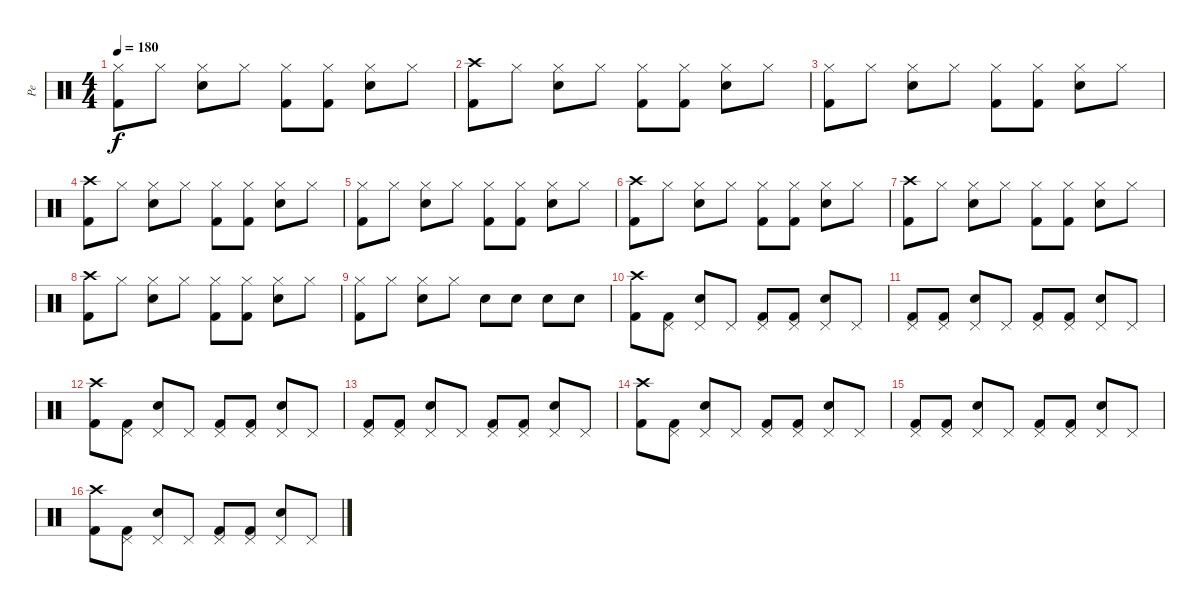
\track ("Pe" "Pe") {instrument percussion}
\staff {score}
\articulation defaults
\ts (4 4)
\tempo 180
\clef neutral
\ks c
("Hi-Hat (closed)" "Kick (hit) 2").8{dy f} "Hi-Hat (closed)".8 ("Hi-Hat (closed)" "Electric Snare (hit)").8 "Hi-Hat (closed)".8 ("Hi-Hat (closed)" "Kick (hit) 2").8 ("Hi-Hat (closed)" "Kick (hit) 2").8 ("Hi-Hat (closed)" "Electric Snare (hit)").8 "Hi-Hat (closed)".8 |
("Crash high (hit)" "Kick (hit) 2").8 "Hi-Hat (closed)".8 ("Hi-Hat (closed)" "Electric Snare (hit)").8 "Hi-Hat (closed)".8 ("Hi-Hat (closed)" "Kick (hit) 2").8 ("Hi-Hat (closed)" "Kick (hit) 2").8 ("Hi-Hat (closed)" "Electric Snare (hit)").8 "Hi-Hat (closed)".8 |
("Hi-Hat (closed)" "Kick (hit) 2").8 "Hi-Hat (closed)".8 ("Hi-Hat (closed)" "Electric Snare (hit)").8 "Hi-Hat (closed)".8 ("Hi-Hat (closed)" "Kick (hit) 2").8 ("Hi-Hat (closed)" "Kick (hit) 2").8 ("Hi-Hat (closed)" "Electric Snare (hit)").8 "Hi-Hat (closed)".8 |
("Crash high (hit)" "Kick (hit) 2").8 "Hi-Hat (closed)".8 ("Hi-Hat (closed)" "Electric Snare (hit)").8 "Hi-Hat (closed)".8 ("Hi-Hat (closed)" "Kick (hit) 2").8 ("Hi-Hat (closed)" "Kick (hit) 2").8 ("Hi-Hat (closed)" "Electric Snare (hit)").8 "Hi-Hat (closed)".8 |
("Hi-Hat (closed)" "Kick (hit) 2").8 "Hi-Hat (closed)".8 ("Hi-Hat (closed)" "Electric Snare (hit)").8 "Hi-Hat (closed)".8 ("Hi-Hat (closed)" "Kick (hit) 2").8 ("Hi-Hat (closed)" "Kick (hit) 2").8 ("Hi-Hat (closed)" "Electric Snare (hit)").8 "Hi-Hat (closed)".8 |
("Crash high (hit)" "Kick (hit) 2").8 "Hi-Hat (closed)".8 ("Hi-Hat (closed)" "Electric Snare (hit)").8 "Hi-Hat (closed)".8 ("Hi-Hat (closed)" "Kick (hit) 2").8 ("Hi-Hat (closed)" "Kick (hit) 2").8 ("Hi-Hat (closed)" "Electric Snare (hit)").8 "Hi-Hat (closed)".8 |
("Crash high (hit)" "Kick (hit) 2").8 "Hi-Hat (closed)".8 ("Hi-Hat (closed)" "Electric Snare (hit)").8 "Hi-Hat (closed)".8 ("Hi-Hat (closed)" "Kick (hit) 2").8 ("Hi-Hat (closed)" "Kick (hit) 2").8 ("Hi-Hat (closed)" "Electric Snare (hit)").8 "Hi-Hat (closed)".8 |
("Crash high (hit)" "Kick (hit) 2").8 "Hi-Hat (closed)".8 ("Hi-Hat (closed)" "Electric Snare (hit)").8 "Hi-Hat (closed)".8 ("Hi-Hat (closed)" "Kick (hit) 2").8 ("Hi-Hat (closed)" "Kick (hit) 2").8 ("Hi-Hat (closed)" "Electric Snare (hit)").8 "Hi-Hat (closed)".8 |
("Hi-Hat (closed)" "Kick (hit) 2").8 "Hi-Hat (closed)".8 ("Hi-Hat (closed)" "Electric Snare (hit)").8 "Hi-Hat (closed)".8 "Electric Snare (hit)".8 "Electric Snare (hit)".8 "Electric Snare (hit)".8 "Electric Snare (hit)".8 |
("Crash high (hit)" "Kick (hit) 2").8 ("Pedal Hi-Hat (hit)" "Kick (hit) 2").8 ("Pedal Hi-Hat (hit)" "Electric Snare (hit)").8 "Pedal Hi-Hat (hit)".8 ("Pedal Hi-Hat (hit)" "Kick (hit) 2").8 ("Pedal Hi-Hat (hit)" "Kick (hit) 2").8 ("Pedal Hi-Hat (hit)" "Electric Snare (hit)").8 "Pedal Hi-Hat (hit)".8 |
("Pedal Hi-Hat (hit)" "Kick (hit) 2").8 ("Pedal Hi-Hat (hit)" "Kick (hit) 2").8 ("Pedal Hi-Hat (hit)" "Electric Snare (hit)").8 "Pedal Hi-Hat (hit)".8 ("Pedal Hi-Hat (hit)" "Kick (hit) 2").8 ("Pedal Hi-Hat (hit)" "Kick (hit) 2").8 ("Pedal Hi-Hat (hit)" "Electric Snare (hit)").8 "Pedal Hi-Hat (hit)".8 |
("Crash high (hit)" "Kick (hit) 2").8 ("Pedal Hi-Hat (hit)" "Kick (hit) 2").8 ("Pedal Hi-Hat (hit)" "Electric Snare (hit)").8 "Pedal Hi-Hat (hit)".8 ("Pedal Hi-Hat (hit)" "Kick (hit) 2").8 ("Pedal Hi-Hat (hit)" "Kick (hit) 2").8 ("Pedal Hi-Hat (hit)" "Electric Snare (hit)").8 "Pedal Hi-Hat (hit)".8 |
("Pedal Hi-Hat (hit)" "Kick (hit) 2").8 ("Pedal Hi-Hat (hit)" "Kick (hit) 2").8 ("Pedal Hi-Hat (hit)" "Electric Snare (hit)").8 "Pedal Hi-Hat (hit)".8 ("Pedal Hi-Hat (hit)" "Kick (hit) 2").8 ("Pedal Hi-Hat (hit)" "Kick (hit) 2").8 ("Pedal Hi-Hat (hit)" "Electric Snare (hit)").8 "Pedal Hi-Hat (hit)".8 |
("Crash high (hit)" "Kick (hit) 2").8 ("Pedal Hi-Hat (hit)" "Kick (hit) 2").8 ("Pedal Hi-Hat (hit)" "Electric Snare (hit)").8 "Pedal Hi-Hat (hit)".8 ("Pedal Hi-Hat (hit)" "Kick (hit) 2").8 ("Pedal Hi-Hat (hit)" "Kick (hit) 2").8 ("Pedal Hi-Hat (hit)" "Electric Snare (hit)").8 "Pedal Hi-Hat (hit)".8 |
("Pedal Hi-Hat (hit)" "Kick (hit) 2").8 ("Pedal Hi-Hat (hit)" "Kick (hit) 2").8 ("Pedal Hi-Hat (hit)" "Electric Snare (hit)").8 "Pedal Hi-Hat (hit)".8 ("Pedal Hi-Hat (hit)" "Kick (hit) 2").8 ("Pedal Hi-Hat (hit)" "Kick (hit) 2").8 ("Pedal Hi-Hat (hit)" "Electric Snare (hit)").8 "Pedal Hi-Hat (hit)".8 |
("Crash high (hit)" "Kick (hit) 2").8 ("Pedal Hi-Hat (hit)" "Kick (hit) 2").8 ("Pedal Hi-Hat (hit)" "Electric Snare (hit)").8 "Pedal Hi-Hat (hit)".8 ("Pedal Hi-Hat (hit)" "Kick (hit) 2").8 ("Pedal Hi-Hat (hit)" "Kick (hit) 2").8 ("Pedal Hi-Hat (hit)" "Electric Snare (hit)").8 "Pedal Hi-Hat (hit)".8
